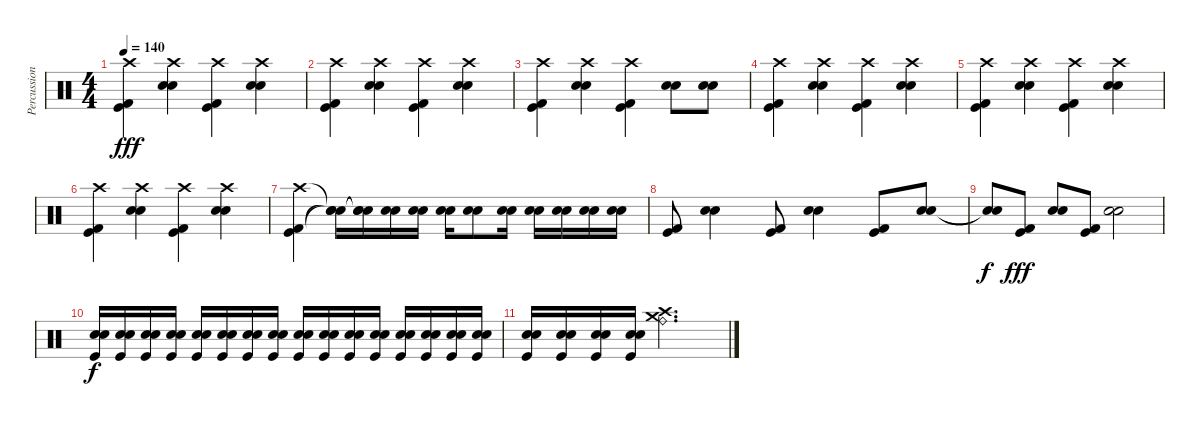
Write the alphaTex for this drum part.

\track ("Percussions" "Percussion") {instrument percussion}
\staff {score}
\articulation defaults
\ts (4 4)
\tempo 140
\clef neutral
\ks c
("Crash high (hit)" "Kick (hit)" "Kick (hit) 2").4{dy fff} ("Crash high (hit)" "Snare (hit) 2" "Electric Snare (hit)").4 ("Crash high (hit)" "Kick (hit)" "Kick (hit) 2").4 ("Crash high (hit)" "Snare (hit) 2" "Electric Snare (hit)").4 |
("Crash high (hit)" "Kick (hit)" "Kick (hit) 2").4 ("Crash high (hit)" "Snare (hit) 2" "Electric Snare (hit)").4 ("Crash high (hit)" "Kick (hit)" "Kick (hit) 2").4 ("Crash high (hit)" "Snare (hit) 2" "Electric Snare (hit)").4 |
("Crash high (hit)" "Kick (hit)" "Kick (hit) 2").4 ("Crash high (hit)" "Snare (hit) 2" "Electric Snare (hit)").4 ("Crash high (hit)" "Kick (hit)" "Kick (hit) 2").4 ("Snare (hit) 2" "Electric Snare (hit)").8 ("Snare (hit) 2" "Electric Snare (hit)").8 |
("Crash high (hit)" "Kick (hit)" "Kick (hit) 2").4 ("Crash high (hit)" "Snare (hit) 2" "Electric Snare (hit)").4 ("Crash high (hit)" "Kick (hit)" "Kick (hit) 2").4 ("Crash high (hit)" "Snare (hit) 2" "Electric Snare (hit)").4 |
("Crash high (hit)" "Kick (hit)" "Kick (hit) 2").4 ("Crash high (hit)" "Snare (hit) 2" "Electric Snare (hit)").4 ("Crash high (hit)" "Kick (hit)" "Kick (hit) 2").4 ("Crash high (hit)" "Snare (hit) 2" "Electric Snare (hit)").4 |
("Crash high (hit)" "Kick (hit)" "Kick (hit) 2").4 ("Crash high (hit)" "Snare (hit) 2" "Electric Snare (hit)").4 ("Crash high (hit)" "Kick (hit)" "Kick (hit) 2").4 ("Crash high (hit)" "Snare (hit) 2" "Electric Snare (hit)").4 |
("Crash high (hit)" "Kick (hit) 2" "Kick (hit)").4 ("Snare (hit)"{t} "Electric Snare (hit)"{t} "Snare (hit) 2"{t}).16 ("Snare (hit)"{t} "Electric Snare (hit)"{t} "Snare (hit) 2"{t}).16 ("Electric Snare (hit)" "Snare (hit) 2").16 ("Electric Snare (hit)" "Snare (hit) 2").16 ("Electric Snare (hit)" "Snare (hit) 2").16 ("Electric Snare (hit)" "Snare (hit) 2").8 ("Electric Snare (hit)" "Snare (hit) 2").16 ("Electric Snare (hit)" "Snare (hit) 2").16 ("Electric Snare (hit)" "Snare (hit) 2").16 ("Electric Snare (hit)" "Snare (hit) 2").16 ("Electric Snare (hit)" "Snare (hit) 2").16 |
("Kick (hit)" "Kick (hit) 2").8 ("Snare (hit) 2" "Electric Snare (hit)").4 ("Kick (hit)" "Kick (hit) 2").8 ("Snare (hit) 2" "Electric Snare (hit)").4 ("Kick (hit)" "Kick (hit) 2").8 ("Snare (hit) 2" "Electric Snare (hit)").8 |
("Snare (hit)"{t} "Snare (hit)"{t}).8{dy f} ("Kick (hit)" "Kick (hit) 2").8{dy fff} ("Snare (hit) 2" "Electric Snare (hit)").8 ("Kick (hit)" "Kick (hit) 2").8 ("Snare (hit) 2" "Electric Snare (hit)").2 |
("Snare (hit) 2" "Electric Snare (hit)" "Kick (hit)").16{dy f} ("Snare (hit) 2" "Electric Snare (hit)" "Kick (hit)").16 ("Snare (hit) 2" "Electric Snare (hit)" "Kick (hit)").16 ("Snare (hit) 2" "Electric Snare (hit)" "Kick (hit)").16 ("Snare (hit) 2" "Electric Snare (hit)" "Kick (hit)").16 ("Snare (hit) 2" "Electric Snare (hit)" "Kick (hit)").16 ("Snare (hit) 2" "Electric Snare (hit)" "Kick (hit)").16 ("Snare (hit) 2" "Electric Snare (hit)" "Kick (hit)").16 ("Snare (hit) 2" "Electric Snare (hit)" "Kick (hit)").16 ("Snare (hit) 2" "Electric Snare (hit)" "Kick (hit)").16 ("Snare (hit) 2" "Electric Snare (hit)" "Kick (hit)").16 ("Snare (hit) 2" "Electric Snare (hit)" "Kick (hit)").16 ("Snare (hit) 2" "Electric Snare (hit)" "Kick (hit)").16 ("Snare (hit) 2" "Electric Snare (hit)" "Kick (hit)").16 ("Snare (hit) 2" "Electric Snare (hit)" "Kick (hit)").16 ("Snare (hit) 2" "Electric Snare (hit)" "Kick (hit)").16 |
("Snare (hit) 2" "Electric Snare (hit)" "Kick (hit)").16 ("Snare (hit) 2" "Electric Snare (hit)" "Kick (hit)").16 ("Snare (hit) 2" "Electric Snare (hit)" "Kick (hit)").16 ("Snare (hit) 2" "Electric Snare (hit)" "Kick (hit)").16 ("Crash high (hit)" "Crash medium (hit)" "Ride (bell)").2{d}
